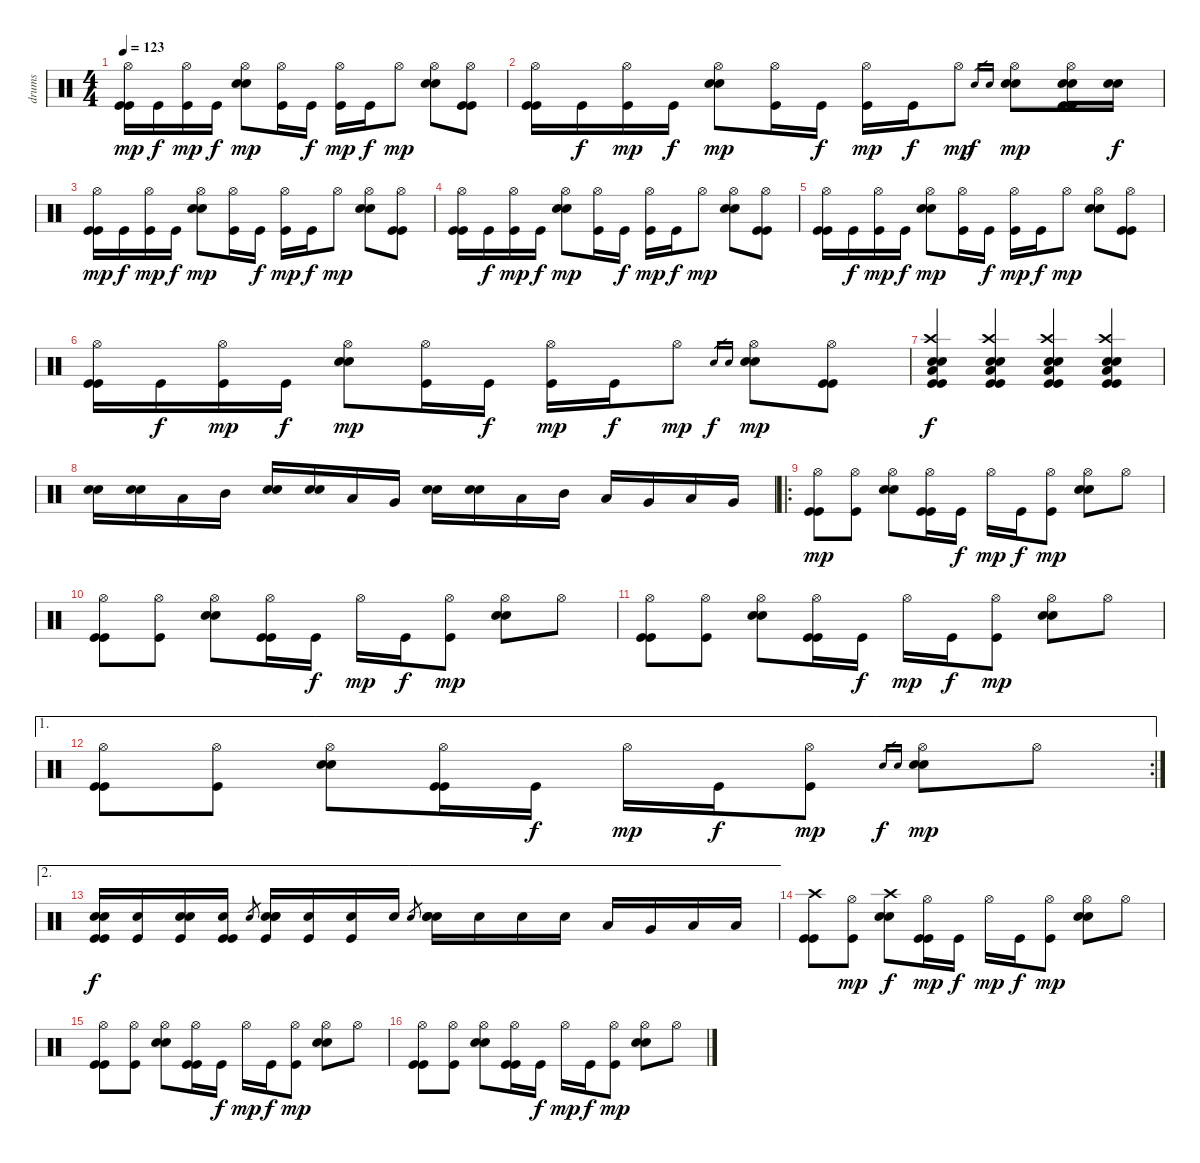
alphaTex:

\track ("drums" "drums") {instrument percussion}
\staff {score}
\articulation defaults
\ts (4 4)
\tempo 123
\clef neutral
\ks c
("Hi-Hat (open)" "Kick (hit)" "Kick (hit)").16{dy mp} "Kick (hit)".16{dy f} ("Hi-Hat (open)" "Kick (hit)").16{dy mp} "Kick (hit)".16{dy f} ("Hi-Hat (open)" "Snare (hit) 2" "Snare (hit) 2").8{dy mp} ("Hi-Hat (open)" "Kick (hit)").16 "Kick (hit)".16{dy f} ("Hi-Hat (open)" "Kick (hit)").16{dy mp} "Kick (hit)".16{dy f} "Hi-Hat (open)".8{dy mp} ("Hi-Hat (open)" "Snare (hit) 2" "Snare (hit) 2").8 ("Hi-Hat (open)" "Kick (hit)" "Kick (hit)").8 |
("Hi-Hat (open)" "Kick (hit)" "Kick (hit)").16 "Kick (hit)".16{dy f} ("Hi-Hat (open)" "Kick (hit)").16{dy mp} "Kick (hit)".16{dy f} ("Hi-Hat (open)" "Snare (hit) 2" "Snare (hit) 2").8{dy mp} ("Hi-Hat (open)" "Kick (hit)").16 "Kick (hit)".16{dy f} ("Hi-Hat (open)" "Kick (hit)").16{dy mp} "Kick (hit)".16{dy f} "Hi-Hat (open)".8{dy mp} "Snare (hit) 2".16{gr dy f} "Snare (hit) 2".16{gr} ("Hi-Hat (open)" "Snare (hit) 2" "Snare (hit) 2").8{dy mp} ("Hi-Hat (open)" "Snare (hit) 2" "Snare (hit) 2" "Kick (hit)" "Kick (hit)").16 ("Snare (hit) 2" "Snare (hit) 2").16{dy f} |
("Hi-Hat (open)" "Kick (hit)" "Kick (hit)").16{dy mp} "Kick (hit)".16{dy f} ("Hi-Hat (open)" "Kick (hit)").16{dy mp} "Kick (hit)".16{dy f} ("Hi-Hat (open)" "Snare (hit) 2" "Snare (hit) 2").8{dy mp} ("Hi-Hat (open)" "Kick (hit)").16 "Kick (hit)".16{dy f} ("Hi-Hat (open)" "Kick (hit)").16{dy mp} "Kick (hit)".16{dy f} "Hi-Hat (open)".8{dy mp} ("Hi-Hat (open)" "Snare (hit) 2" "Snare (hit) 2").8 ("Hi-Hat (open)" "Kick (hit)" "Kick (hit)").8 |
("Hi-Hat (open)" "Kick (hit)" "Kick (hit)").16 "Kick (hit)".16{dy f} ("Hi-Hat (open)" "Kick (hit)").16{dy mp} "Kick (hit)".16{dy f} ("Hi-Hat (open)" "Snare (hit) 2" "Snare (hit) 2").8{dy mp} ("Hi-Hat (open)" "Kick (hit)").16 "Kick (hit)".16{dy f} ("Hi-Hat (open)" "Kick (hit)").16{dy mp} "Kick (hit)".16{dy f} "Hi-Hat (open)".8{dy mp} ("Hi-Hat (open)" "Snare (hit) 2" "Snare (hit) 2").8 ("Hi-Hat (open)" "Kick (hit)" "Kick (hit)").8 |
("Hi-Hat (open)" "Kick (hit)" "Kick (hit)").16 "Kick (hit)".16{dy f} ("Hi-Hat (open)" "Kick (hit)").16{dy mp} "Kick (hit)".16{dy f} ("Hi-Hat (open)" "Snare (hit) 2" "Snare (hit) 2").8{dy mp} ("Hi-Hat (open)" "Kick (hit)").16 "Kick (hit)".16{dy f} ("Hi-Hat (open)" "Kick (hit)").16{dy mp} "Kick (hit)".16{dy f} "Hi-Hat (open)".8{dy mp} ("Hi-Hat (open)" "Snare (hit) 2" "Snare (hit) 2").8 ("Hi-Hat (open)" "Kick (hit)" "Kick (hit)").8 |
("Hi-Hat (open)" "Kick (hit)" "Kick (hit)").16 "Kick (hit)".16{dy f} ("Hi-Hat (open)" "Kick (hit)").16{dy mp} "Kick (hit)".16{dy f} ("Hi-Hat (open)" "Snare (hit) 2" "Snare (hit) 2").8{dy mp} ("Hi-Hat (open)" "Kick (hit)").16 "Kick (hit)".16{dy f} ("Hi-Hat (open)" "Kick (hit)").16{dy mp} "Kick (hit)".16{dy f} "Hi-Hat (open)".8{dy mp} "Snare (hit) 2".16{gr dy f} "Snare (hit) 2".16{gr} ("Hi-Hat (open)" "Snare (hit) 2" "Snare (hit) 2").8{dy mp} ("Hi-Hat (open)" "Kick (hit)" "Kick (hit)").8 |
("Crash high (hit)" "Snare (hit) 2" "Snare (hit) 2" "Low Floor Tom (hit)" "Kick (hit)" "Kick (hit)").4{dy f} ("Crash high (hit)" "Snare (hit) 2" "Snare (hit) 2" "Low Floor Tom (hit)" "Kick (hit)" "Kick (hit)").4 ("Crash high (hit)" "Snare (hit) 2" "Snare (hit) 2" "Low Floor Tom (hit)" "Kick (hit)" "Kick (hit)").4 ("Crash high (hit)" "Snare (hit) 2" "Snare (hit) 2" "Low Floor Tom (hit)" "Kick (hit)" "Kick (hit)").4 |
("Snare (hit) 2" "Snare (hit) 2").16 ("Snare (hit) 2" "Snare (hit) 2").16 "Low Tom (hit)".16 "Mid Tom (hit)".16 ("Snare (hit) 2" "Snare (hit) 2").16 ("Snare (hit) 2" "Snare (hit) 2").16 "Low Floor Tom (hit)".16 "Very Low Tom (hit)".16 ("Snare (hit) 2" "Snare (hit) 2").16 ("Snare (hit) 2" "Snare (hit) 2").16 "Low Tom (hit)".16 "Mid Tom (hit)".16 "Low Tom (hit)".16 "Very Low Tom (hit)".16 "Low Floor Tom (hit)".16 "Very Low Tom (hit)".16 |
\ro
("Hi-Hat (open)" "Kick (hit)" "Kick (hit)").8{dy mp} ("Hi-Hat (open)" "Kick (hit)").8 ("Hi-Hat (open)" "Snare (hit) 2" "Snare (hit) 2").8 ("Hi-Hat (open)" "Kick (hit)" "Kick (hit)").16 "Kick (hit)".16{dy f} "Hi-Hat (open)".16{dy mp} "Kick (hit)".16{dy f} ("Hi-Hat (open)" "Kick (hit)").8{dy mp} ("Hi-Hat (open)" "Snare (hit) 2" "Snare (hit) 2").8 "Hi-Hat (open)".8 |
("Hi-Hat (open)" "Kick (hit)" "Kick (hit)").8 ("Hi-Hat (open)" "Kick (hit)").8 ("Hi-Hat (open)" "Snare (hit) 2" "Snare (hit) 2").8 ("Hi-Hat (open)" "Kick (hit)" "Kick (hit)").16 "Kick (hit)".16{dy f} "Hi-Hat (open)".16{dy mp} "Kick (hit)".16{dy f} ("Hi-Hat (open)" "Kick (hit)").8{dy mp} ("Hi-Hat (open)" "Snare (hit) 2" "Snare (hit) 2").8 "Hi-Hat (open)".8 |
("Hi-Hat (open)" "Kick (hit)" "Kick (hit)").8 ("Hi-Hat (open)" "Kick (hit)").8 ("Hi-Hat (open)" "Snare (hit) 2" "Snare (hit) 2").8 ("Hi-Hat (open)" "Kick (hit)" "Kick (hit)").16 "Kick (hit)".16{dy f} "Hi-Hat (open)".16{dy mp} "Kick (hit)".16{dy f} ("Hi-Hat (open)" "Kick (hit)").8{dy mp} ("Hi-Hat (open)" "Snare (hit) 2" "Snare (hit) 2").8 "Hi-Hat (open)".8 |
\ae 1
\rc 2
("Hi-Hat (open)" "Kick (hit)" "Kick (hit)").8 ("Hi-Hat (open)" "Kick (hit)").8 ("Hi-Hat (open)" "Snare (hit) 2" "Snare (hit) 2").8 ("Hi-Hat (open)" "Kick (hit)" "Kick (hit)").16 "Kick (hit)".16{dy f} "Hi-Hat (open)".16{dy mp} "Kick (hit)".16{dy f} ("Hi-Hat (open)" "Kick (hit)").8{dy mp} "Snare (hit) 2".16{gr dy f} "Snare (hit) 2".16{gr} ("Hi-Hat (open)" "Snare (hit) 2" "Snare (hit) 2").8{dy mp} "Hi-Hat (open)".8 |
\ae 2
("Snare (hit) 2" "Snare (hit) 2" "Kick (hit)" "Kick (hit)").16{dy f} ("Snare (hit) 2" "Kick (hit)").16 ("Snare (hit) 2" "Snare (hit) 2" "Kick (hit)").16 ("Snare (hit) 2" "Kick (hit)" "Kick (hit)").16 "Snare (hit) 2".8{gr} ("Snare (hit) 2" "Snare (hit) 2" "Snare (hit) 2" "Kick (hit)").16 ("Snare (hit) 2" "Kick (hit)").16 ("Snare (hit) 2" "Kick (hit)").16 "Snare (hit) 2".16 "Snare (hit) 2".8{gr} ("Snare (hit) 2" "Snare (hit) 2" "Snare (hit) 2").16 "Snare (hit) 2".16 "Snare (hit) 2".16 "Snare (hit) 2".16 "Low Tom (hit)".16 "Very Low Tom (hit)".16 "Low Floor Tom (hit)".16 "Low Floor Tom (hit)".16 |
("Crash high (hit)" "Kick (hit)" "Kick (hit)").8 ("Hi-Hat (open)" "Kick (hit)").8{dy mp} ("Crash high (hit)" "Snare (hit) 2" "Snare (hit) 2").8{dy f} ("Hi-Hat (open)" "Kick (hit)" "Kick (hit)").16{dy mp} "Kick (hit)".16{dy f} "Hi-Hat (open)".16{dy mp} "Kick (hit)".16{dy f} ("Hi-Hat (open)" "Kick (hit)").8{dy mp} ("Hi-Hat (open)" "Snare (hit) 2" "Snare (hit) 2").8 "Hi-Hat (open)".8 |
("Hi-Hat (open)" "Kick (hit)" "Kick (hit)").8 ("Hi-Hat (open)" "Kick (hit)").8 ("Hi-Hat (open)" "Snare (hit) 2" "Snare (hit) 2").8 ("Hi-Hat (open)" "Kick (hit)" "Kick (hit)").16 "Kick (hit)".16{dy f} "Hi-Hat (open)".16{dy mp} "Kick (hit)".16{dy f} ("Hi-Hat (open)" "Kick (hit)").8{dy mp} ("Hi-Hat (open)" "Snare (hit) 2" "Snare (hit) 2").8 "Hi-Hat (open)".8 |
("Hi-Hat (open)" "Kick (hit)" "Kick (hit)").8 ("Hi-Hat (open)" "Kick (hit)").8 ("Hi-Hat (open)" "Snare (hit) 2" "Snare (hit) 2").8 ("Hi-Hat (open)" "Kick (hit)" "Kick (hit)").16 "Kick (hit)".16{dy f} "Hi-Hat (open)".16{dy mp} "Kick (hit)".16{dy f} ("Hi-Hat (open)" "Kick (hit)").8{dy mp} ("Hi-Hat (open)" "Snare (hit) 2" "Snare (hit) 2").8 "Hi-Hat (open)".8
